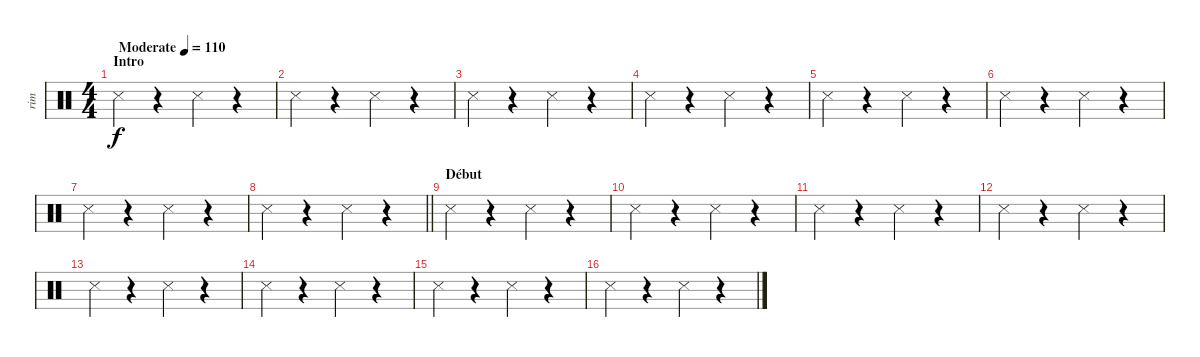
\track ("rim     " "rim     ") {instrument percussion}
\staff {score}
\articulation defaults
\ts (4 4)
\section ("" "Intro")
\tempo (110 "Moderate")
\clef neutral
\ks c "Snare (side stick) 3".4{dy f}
r.4 "Snare (side stick) 3".4 r.4 |
"Snare (side stick) 3".4 r.4 "Snare (side stick) 3".4 r.4 |
"Snare (side stick) 3".4 r.4 "Snare (side stick) 3".4 r.4 |
"Snare (side stick) 3".4 r.4 "Snare (side stick) 3".4 r.4 |
"Snare (side stick) 3".4 r.4 "Snare (side stick) 3".4 r.4 |
"Snare (side stick) 3".4 r.4 "Snare (side stick) 3".4 r.4 |
"Snare (side stick) 3".4 r.4 "Snare (side stick) 3".4 r.4 |
\barLineRight lightlight "Snare (side stick) 3".4
r.4 "Snare (side stick) 3".4 r.4 |
\section ("" "Début")
"Snare (side stick) 3".4 r.4 "Snare (side stick) 3".4 r.4 |
"Snare (side stick) 3".4 r.4 "Snare (side stick) 3".4 r.4 |
"Snare (side stick) 3".4 r.4 "Snare (side stick) 3".4 r.4 |
"Snare (side stick) 3".4 r.4 "Snare (side stick) 3".4 r.4 |
"Snare (side stick) 3".4 r.4 "Snare (side stick) 3".4 r.4 |
"Snare (side stick) 3".4 r.4 "Snare (side stick) 3".4 r.4 |
"Snare (side stick) 3".4 r.4 "Snare (side stick) 3".4 r.4 |
"Snare (side stick) 3".4 r.4 "Snare (side stick) 3".4 r.4
